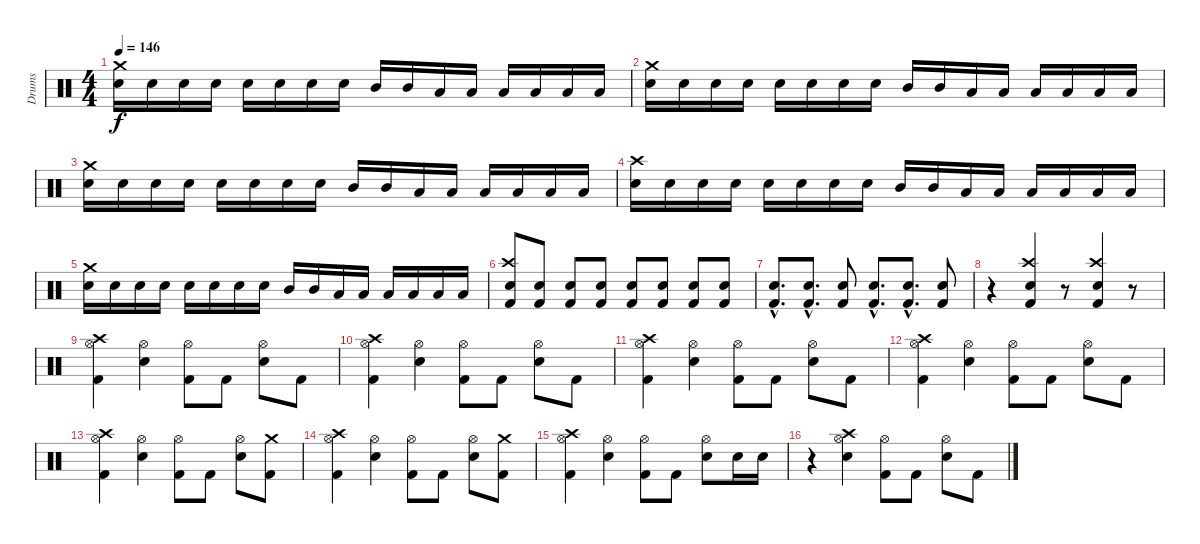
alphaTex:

\track ("Drums" "Drums") {instrument percussion}
\staff {score}
\articulation defaults
\ts (4 4)
\tempo 146
\clef neutral
\ks c
("Crash medium (hit)" "Electric Snare (hit)").16{dy f} "Electric Snare (hit)".16 "Electric Snare (hit)".16 "Electric Snare (hit)".16 "Electric Snare (hit)".16 "Electric Snare (hit)".16 "Electric Snare (hit)".16 "Electric Snare (hit)".16 "Mid Tom (hit)".16 "Mid Tom (hit)".16 "Low Tom (hit)".16 "Low Tom (hit)".16 "Low Tom (hit)".16 "Low Tom (hit)".16 "Low Tom (hit)".16 "Low Tom (hit)".16 |
("Crash medium (hit)" "Electric Snare (hit)").16 "Electric Snare (hit)".16 "Electric Snare (hit)".16 "Electric Snare (hit)".16 "Electric Snare (hit)".16 "Electric Snare (hit)".16 "Electric Snare (hit)".16 "Electric Snare (hit)".16 "Mid Tom (hit)".16 "Mid Tom (hit)".16 "Low Tom (hit)".16 "Low Tom (hit)".16 "Low Tom (hit)".16 "Low Tom (hit)".16 "Low Tom (hit)".16 "Low Tom (hit)".16 |
("Crash medium (hit)" "Electric Snare (hit)").16 "Electric Snare (hit)".16 "Electric Snare (hit)".16 "Electric Snare (hit)".16 "Electric Snare (hit)".16 "Electric Snare (hit)".16 "Electric Snare (hit)".16 "Electric Snare (hit)".16 "Mid Tom (hit)".16 "Mid Tom (hit)".16 "Low Tom (hit)".16 "Low Tom (hit)".16 "Low Tom (hit)".16 "Low Tom (hit)".16 "Low Tom (hit)".16 "Low Tom (hit)".16 |
("Crash high (hit)" "Electric Snare (hit)").16 "Electric Snare (hit)".16 "Electric Snare (hit)".16 "Electric Snare (hit)".16 "Electric Snare (hit)".16 "Electric Snare (hit)".16 "Electric Snare (hit)".16 "Electric Snare (hit)".16 "Mid Tom (hit)".16 "Mid Tom (hit)".16 "Low Tom (hit)".16 "Low Tom (hit)".16 "Low Tom (hit)".16 "Low Tom (hit)".16 "Low Tom (hit)".16 "Low Tom (hit)".16 |
("Crash medium (hit)" "Electric Snare (hit)").16 "Electric Snare (hit)".16 "Electric Snare (hit)".16 "Electric Snare (hit)".16 "Electric Snare (hit)".16 "Electric Snare (hit)".16 "Electric Snare (hit)".16 "Electric Snare (hit)".16 "Mid Tom (hit)".16 "Mid Tom (hit)".16 "Low Tom (hit)".16 "Low Tom (hit)".16 "Low Tom (hit)".16 "Low Tom (hit)".16 "Low Tom (hit)".16 "Low Tom (hit)".16 |
("Crash high (hit)" "Electric Snare (hit)" "Kick (hit) 2").8 ("Electric Snare (hit)" "Kick (hit) 2").8 ("Electric Snare (hit)" "Kick (hit) 2").8 ("Electric Snare (hit)" "Kick (hit) 2").8 ("Electric Snare (hit)" "Kick (hit) 2").8 ("Electric Snare (hit)" "Kick (hit) 2").8 ("Electric Snare (hit)" "Kick (hit) 2").8 ("Electric Snare (hit)" "Kick (hit) 2").8 |
("Electric Snare (hit)"{hac} "Kick (hit) 2"{hac}).8{d} ("Electric Snare (hit)"{hac} "Kick (hit) 2"{hac}).8{d} ("Electric Snare (hit)" "Kick (hit) 2").8 ("Electric Snare (hit)"{hac} "Kick (hit) 2"{hac}).8{d} ("Electric Snare (hit)"{hac} "Kick (hit) 2"{hac}).8{d} ("Electric Snare (hit)" "Kick (hit) 2").8 |
r.4 ("Crash high (hit)" "Electric Snare (hit)" "Kick (hit) 2").4 r.8 ("Crash high (hit)" "Electric Snare (hit)" "Kick (hit) 2").4 r.8 |
("Crash high (hit)" "Hi-Hat (open)" "Kick (hit) 2").4 ("Hi-Hat (open)" "Electric Snare (hit)").4 ("Hi-Hat (open)" "Kick (hit) 2").8 "Kick (hit) 2".8 ("Hi-Hat (open)" "Electric Snare (hit)").8 "Kick (hit) 2".8 |
("Crash high (hit)" "Hi-Hat (open)" "Kick (hit) 2").4 ("Hi-Hat (open)" "Electric Snare (hit)").4 ("Hi-Hat (open)" "Kick (hit) 2").8 "Kick (hit) 2".8 ("Hi-Hat (open)" "Electric Snare (hit)").8 "Kick (hit) 2".8 |
("Crash high (hit)" "Hi-Hat (open)" "Kick (hit) 2").4 ("Hi-Hat (open)" "Electric Snare (hit)").4 ("Hi-Hat (open)" "Kick (hit) 2").8 "Kick (hit) 2".8 ("Hi-Hat (open)" "Electric Snare (hit)").8 "Kick (hit) 2".8 |
("Crash high (hit)" "Hi-Hat (open)" "Kick (hit) 2").4 ("Hi-Hat (open)" "Electric Snare (hit)").4 ("Hi-Hat (open)" "Kick (hit) 2").8 "Kick (hit) 2".8 ("Hi-Hat (open)" "Electric Snare (hit)").8 "Kick (hit) 2".8 |
("Crash high (hit)" "Hi-Hat (open)" "Kick (hit) 2").4 ("Hi-Hat (open)" "Electric Snare (hit)").4 ("Hi-Hat (open)" "Kick (hit) 2").8 "Kick (hit) 2".8 ("Hi-Hat (open)" "Electric Snare (hit)").8 ("Crash medium (hit)" "Kick (hit) 2").8 |
("Crash high (hit)" "Hi-Hat (open)" "Kick (hit) 2").4 ("Hi-Hat (open)" "Electric Snare (hit)").4 ("Hi-Hat (open)" "Kick (hit) 2").8 "Kick (hit) 2".8 ("Hi-Hat (open)" "Electric Snare (hit)").8 ("Crash medium (hit)" "Kick (hit) 2").8 |
("Crash high (hit)" "Hi-Hat (open)" "Kick (hit) 2").4 ("Hi-Hat (open)" "Electric Snare (hit)").4 ("Hi-Hat (open)" "Kick (hit) 2").8 "Kick (hit) 2".8 ("Hi-Hat (open)" "Electric Snare (hit)").8 "Electric Snare (hit)".16 "Electric Snare (hit)".16 |
r.4 ("Crash high (hit)" "Hi-Hat (open)" "Electric Snare (hit)").4 ("Hi-Hat (open)" "Kick (hit) 2").8 "Kick (hit) 2".8 ("Hi-Hat (open)" "Electric Snare (hit)").8 "Kick (hit) 2".8
